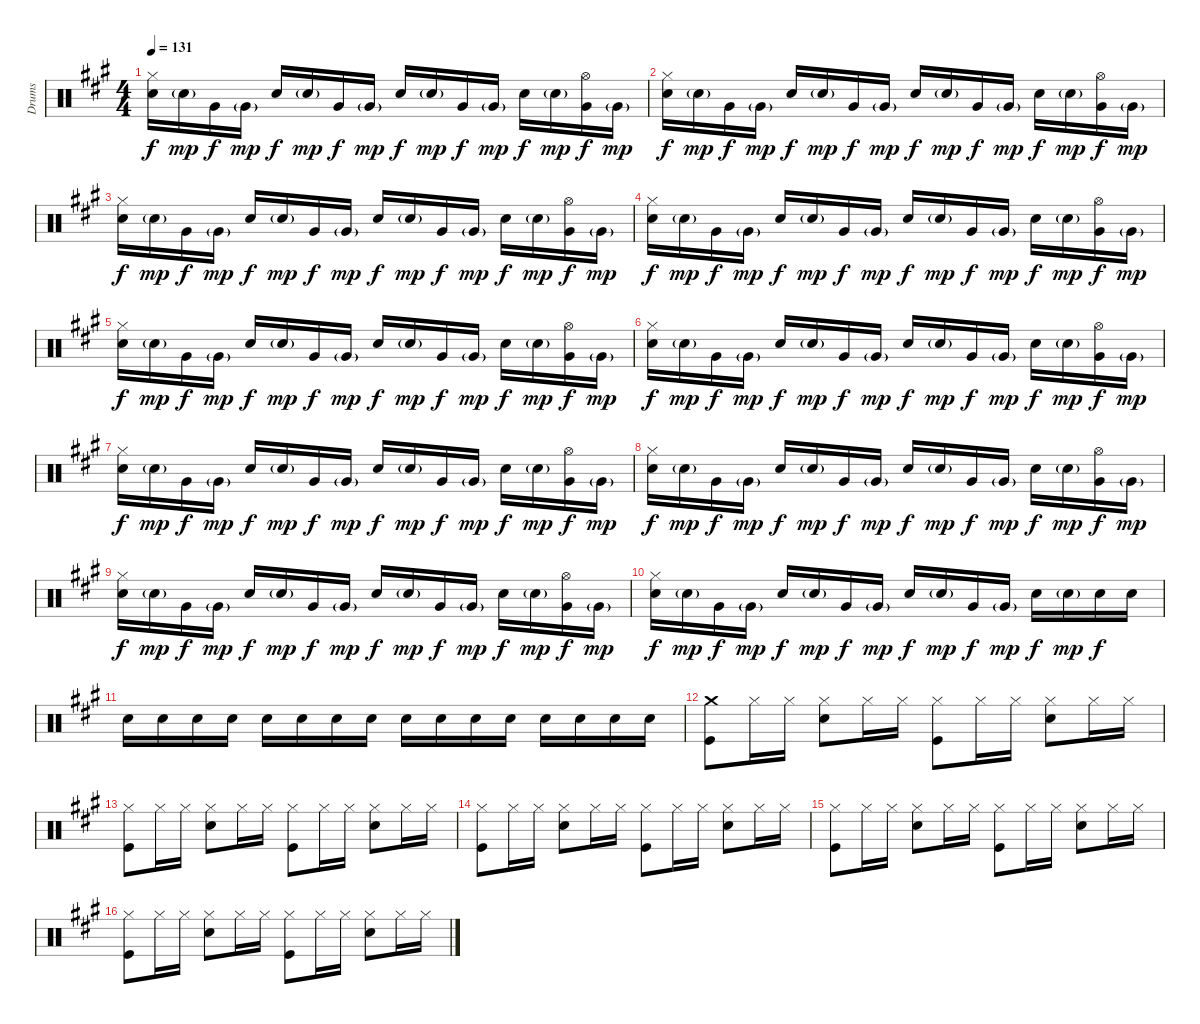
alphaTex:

\track ("Drums" "Drums") {instrument percussion}
\staff {score}
\articulation defaults
\ts (4 4)
\tempo 131
\clef neutral
\ks a
("Hi-Hat (closed)" "Snare (hit) 2").16{dy f} "Snare (hit) 2"{g}.16{dy mp} "Very Low Tom (hit)".16{dy f} "Very Low Tom (hit)"{g}.16{dy mp} "Snare (hit) 2".16{dy f} "Snare (hit) 2"{g}.16{dy mp} "Very Low Tom (hit)".16{dy f} "Very Low Tom (hit)"{g}.16{dy mp} "Snare (hit) 2".16{dy f} "Snare (hit) 2"{g}.16{dy mp} "Very Low Tom (hit)".16{dy f} "Very Low Tom (hit)"{g}.16{dy mp} "Snare (hit) 2".16{dy f} "Snare (hit) 2"{g}.16{dy mp} ("Hi-Hat (open)" "Very Low Tom (hit)").16{dy f} "Very Low Tom (hit)"{g}.16{dy mp} |
("Hi-Hat (closed)" "Snare (hit) 2").16{dy f} "Snare (hit) 2"{g}.16{dy mp} "Very Low Tom (hit)".16{dy f} "Very Low Tom (hit)"{g}.16{dy mp} "Snare (hit) 2".16{dy f} "Snare (hit) 2"{g}.16{dy mp} "Very Low Tom (hit)".16{dy f} "Very Low Tom (hit)"{g}.16{dy mp} "Snare (hit) 2".16{dy f} "Snare (hit) 2"{g}.16{dy mp} "Very Low Tom (hit)".16{dy f} "Very Low Tom (hit)"{g}.16{dy mp} "Snare (hit) 2".16{dy f} "Snare (hit) 2"{g}.16{dy mp} ("Hi-Hat (open)" "Very Low Tom (hit)").16{dy f} "Very Low Tom (hit)"{g}.16{dy mp} |
("Hi-Hat (closed)" "Snare (hit) 2").16{dy f} "Snare (hit) 2"{g}.16{dy mp} "Very Low Tom (hit)".16{dy f} "Very Low Tom (hit)"{g}.16{dy mp} "Snare (hit) 2".16{dy f} "Snare (hit) 2"{g}.16{dy mp} "Very Low Tom (hit)".16{dy f} "Very Low Tom (hit)"{g}.16{dy mp} "Snare (hit) 2".16{dy f} "Snare (hit) 2"{g}.16{dy mp} "Very Low Tom (hit)".16{dy f} "Very Low Tom (hit)"{g}.16{dy mp} "Snare (hit) 2".16{dy f} "Snare (hit) 2"{g}.16{dy mp} ("Hi-Hat (open)" "Very Low Tom (hit)").16{dy f} "Very Low Tom (hit)"{g}.16{dy mp} |
("Hi-Hat (closed)" "Snare (hit) 2").16{dy f} "Snare (hit) 2"{g}.16{dy mp} "Very Low Tom (hit)".16{dy f} "Very Low Tom (hit)"{g}.16{dy mp} "Snare (hit) 2".16{dy f} "Snare (hit) 2"{g}.16{dy mp} "Very Low Tom (hit)".16{dy f} "Very Low Tom (hit)"{g}.16{dy mp} "Snare (hit) 2".16{dy f} "Snare (hit) 2"{g}.16{dy mp} "Very Low Tom (hit)".16{dy f} "Very Low Tom (hit)"{g}.16{dy mp} "Snare (hit) 2".16{dy f} "Snare (hit) 2"{g}.16{dy mp} ("Hi-Hat (open)" "Very Low Tom (hit)").16{dy f} "Very Low Tom (hit)"{g}.16{dy mp} |
("Hi-Hat (closed)" "Snare (hit) 2").16{dy f} "Snare (hit) 2"{g}.16{dy mp} "Very Low Tom (hit)".16{dy f} "Very Low Tom (hit)"{g}.16{dy mp} "Snare (hit) 2".16{dy f} "Snare (hit) 2"{g}.16{dy mp} "Very Low Tom (hit)".16{dy f} "Very Low Tom (hit)"{g}.16{dy mp} "Snare (hit) 2".16{dy f} "Snare (hit) 2"{g}.16{dy mp} "Very Low Tom (hit)".16{dy f} "Very Low Tom (hit)"{g}.16{dy mp} "Snare (hit) 2".16{dy f} "Snare (hit) 2"{g}.16{dy mp} ("Hi-Hat (open)" "Very Low Tom (hit)").16{dy f} "Very Low Tom (hit)"{g}.16{dy mp} |
("Hi-Hat (closed)" "Snare (hit) 2").16{dy f} "Snare (hit) 2"{g}.16{dy mp} "Very Low Tom (hit)".16{dy f} "Very Low Tom (hit)"{g}.16{dy mp} "Snare (hit) 2".16{dy f} "Snare (hit) 2"{g}.16{dy mp} "Very Low Tom (hit)".16{dy f} "Very Low Tom (hit)"{g}.16{dy mp} "Snare (hit) 2".16{dy f} "Snare (hit) 2"{g}.16{dy mp} "Very Low Tom (hit)".16{dy f} "Very Low Tom (hit)"{g}.16{dy mp} "Snare (hit) 2".16{dy f} "Snare (hit) 2"{g}.16{dy mp} ("Hi-Hat (open)" "Very Low Tom (hit)").16{dy f} "Very Low Tom (hit)"{g}.16{dy mp} |
("Hi-Hat (closed)" "Snare (hit) 2").16{dy f} "Snare (hit) 2"{g}.16{dy mp} "Very Low Tom (hit)".16{dy f} "Very Low Tom (hit)"{g}.16{dy mp} "Snare (hit) 2".16{dy f} "Snare (hit) 2"{g}.16{dy mp} "Very Low Tom (hit)".16{dy f} "Very Low Tom (hit)"{g}.16{dy mp} "Snare (hit) 2".16{dy f} "Snare (hit) 2"{g}.16{dy mp} "Very Low Tom (hit)".16{dy f} "Very Low Tom (hit)"{g}.16{dy mp} "Snare (hit) 2".16{dy f} "Snare (hit) 2"{g}.16{dy mp} ("Hi-Hat (open)" "Very Low Tom (hit)").16{dy f} "Very Low Tom (hit)"{g}.16{dy mp} |
("Hi-Hat (closed)" "Snare (hit) 2").16{dy f} "Snare (hit) 2"{g}.16{dy mp} "Very Low Tom (hit)".16{dy f} "Very Low Tom (hit)"{g}.16{dy mp} "Snare (hit) 2".16{dy f} "Snare (hit) 2"{g}.16{dy mp} "Very Low Tom (hit)".16{dy f} "Very Low Tom (hit)"{g}.16{dy mp} "Snare (hit) 2".16{dy f} "Snare (hit) 2"{g}.16{dy mp} "Very Low Tom (hit)".16{dy f} "Very Low Tom (hit)"{g}.16{dy mp} "Snare (hit) 2".16{dy f} "Snare (hit) 2"{g}.16{dy mp} ("Hi-Hat (open)" "Very Low Tom (hit)").16{dy f} "Very Low Tom (hit)"{g}.16{dy mp} |
("Hi-Hat (closed)" "Snare (hit) 2").16{dy f} "Snare (hit) 2"{g}.16{dy mp} "Very Low Tom (hit)".16{dy f} "Very Low Tom (hit)"{g}.16{dy mp} "Snare (hit) 2".16{dy f} "Snare (hit) 2"{g}.16{dy mp} "Very Low Tom (hit)".16{dy f} "Very Low Tom (hit)"{g}.16{dy mp} "Snare (hit) 2".16{dy f} "Snare (hit) 2"{g}.16{dy mp} "Very Low Tom (hit)".16{dy f} "Very Low Tom (hit)"{g}.16{dy mp} "Snare (hit) 2".16{dy f} "Snare (hit) 2"{g}.16{dy mp} ("Hi-Hat (open)" "Very Low Tom (hit)").16{dy f} "Very Low Tom (hit)"{g}.16{dy mp} |
("Hi-Hat (closed)" "Snare (hit) 2").16{dy f} "Snare (hit) 2"{g}.16{dy mp} "Very Low Tom (hit)".16{dy f} "Very Low Tom (hit)"{g}.16{dy mp} "Snare (hit) 2".16{dy f} "Snare (hit) 2"{g}.16{dy mp} "Very Low Tom (hit)".16{dy f} "Very Low Tom (hit)"{g}.16{dy mp} "Snare (hit) 2".16{dy f} "Snare (hit) 2"{g}.16{dy mp} "Very Low Tom (hit)".16{dy f} "Very Low Tom (hit)"{g}.16{dy mp} "Snare (hit) 2".16{dy f} "Snare (hit) 2"{g}.16{dy mp} "Snare (hit) 2".16{dy f} "Snare (hit) 2".16 |
"Snare (hit) 2".16 "Snare (hit) 2".16 "Snare (hit) 2".16 "Snare (hit) 2".16 "Snare (hit) 2".16 "Snare (hit) 2".16 "Snare (hit) 2".16 "Snare (hit) 2".16 "Snare (hit) 2".16 "Snare (hit) 2".16 "Snare (hit) 2".16 "Snare (hit) 2".16 "Snare (hit) 2".16 "Snare (hit) 2".16 "Snare (hit) 2".16 "Snare (hit) 2".16 |
("Crash medium (hit)" "Kick (hit)").8 "Hi-Hat (closed)".16 "Hi-Hat (closed)".16 ("Hi-Hat (closed)" "Snare (hit) 2").8 "Hi-Hat (closed)".16 "Hi-Hat (closed)".16 ("Hi-Hat (closed)" "Kick (hit)").8 "Hi-Hat (closed)".16 "Hi-Hat (closed)".16 ("Hi-Hat (closed)" "Snare (hit) 2").8 "Hi-Hat (closed)".16 "Hi-Hat (closed)".16 |
("Hi-Hat (closed)" "Kick (hit)").8 "Hi-Hat (closed)".16 "Hi-Hat (closed)".16 ("Hi-Hat (closed)" "Snare (hit) 2").8 "Hi-Hat (closed)".16 "Hi-Hat (closed)".16 ("Hi-Hat (closed)" "Kick (hit)").8 "Hi-Hat (closed)".16 "Hi-Hat (closed)".16 ("Hi-Hat (closed)" "Snare (hit) 2").8 "Hi-Hat (closed)".16 "Hi-Hat (closed)".16 |
("Hi-Hat (closed)" "Kick (hit)").8 "Hi-Hat (closed)".16 "Hi-Hat (closed)".16 ("Hi-Hat (closed)" "Snare (hit) 2").8 "Hi-Hat (closed)".16 "Hi-Hat (closed)".16 ("Hi-Hat (closed)" "Kick (hit)").8 "Hi-Hat (closed)".16 "Hi-Hat (closed)".16 ("Hi-Hat (closed)" "Snare (hit) 2").8 "Hi-Hat (closed)".16 "Hi-Hat (closed)".16 |
("Hi-Hat (closed)" "Kick (hit)").8 "Hi-Hat (closed)".16 "Hi-Hat (closed)".16 ("Hi-Hat (closed)" "Snare (hit) 2").8 "Hi-Hat (closed)".16 "Hi-Hat (closed)".16 ("Hi-Hat (closed)" "Kick (hit)").8 "Hi-Hat (closed)".16 "Hi-Hat (closed)".16 ("Hi-Hat (closed)" "Snare (hit) 2").8 "Hi-Hat (closed)".16 "Hi-Hat (closed)".16 |
("Hi-Hat (closed)" "Kick (hit)").8 "Hi-Hat (closed)".16 "Hi-Hat (closed)".16 ("Hi-Hat (closed)" "Snare (hit) 2").8 "Hi-Hat (closed)".16 "Hi-Hat (closed)".16 ("Hi-Hat (closed)" "Kick (hit)").8 "Hi-Hat (closed)".16 "Hi-Hat (closed)".16 ("Hi-Hat (closed)" "Snare (hit) 2").8 "Hi-Hat (closed)".16 "Hi-Hat (closed)".16
